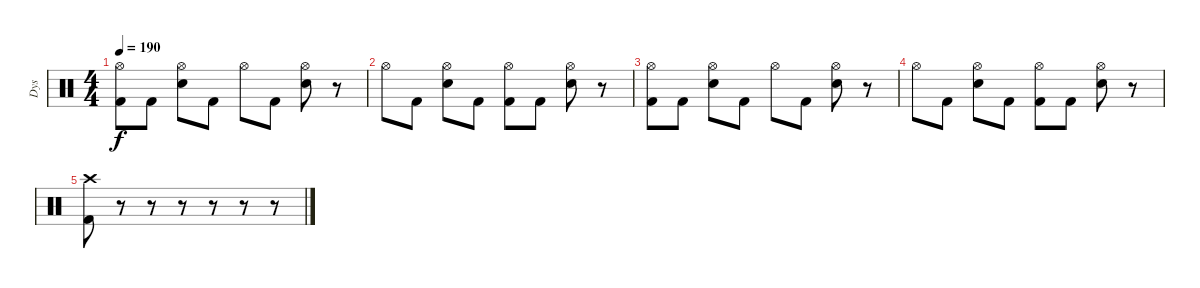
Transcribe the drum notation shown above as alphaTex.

\track ("Dys" "Dys") {instrument percussion}
\staff {score}
\articulation defaults
\ts (4 4)
\tempo 190
\clef neutral
\ks c
("Hi-Hat (open)" "Kick (hit) 2").8{dy f} "Kick (hit) 2".8 ("Hi-Hat (open)" "Electric Snare (hit)").8 "Kick (hit) 2".8 "Hi-Hat (open)".8 "Kick (hit) 2".8 ("Hi-Hat (open)" "Electric Snare (hit)").8 r.8 |
"Hi-Hat (open)".8 "Kick (hit) 2".8 ("Hi-Hat (open)" "Electric Snare (hit)").8 "Kick (hit) 2".8 ("Hi-Hat (open)" "Kick (hit) 2").8 "Kick (hit) 2".8 ("Hi-Hat (open)" "Electric Snare (hit)").8 r.8 |
("Hi-Hat (open)" "Kick (hit) 2").8 "Kick (hit) 2".8 ("Hi-Hat (open)" "Electric Snare (hit)").8 "Kick (hit) 2".8 "Hi-Hat (open)".8 "Kick (hit) 2".8 ("Hi-Hat (open)" "Electric Snare (hit)").8 r.8 |
"Hi-Hat (open)".8 "Kick (hit) 2".8 ("Hi-Hat (open)" "Electric Snare (hit)").8 "Kick (hit) 2".8 ("Hi-Hat (open)" "Kick (hit) 2").8 "Kick (hit) 2".8 ("Hi-Hat (open)" "Electric Snare (hit)").8 r.8 |
("Crash high (hit)" "Kick (hit) 2").8 r.8 r.8 r.8 r.8 r.8 r.8
